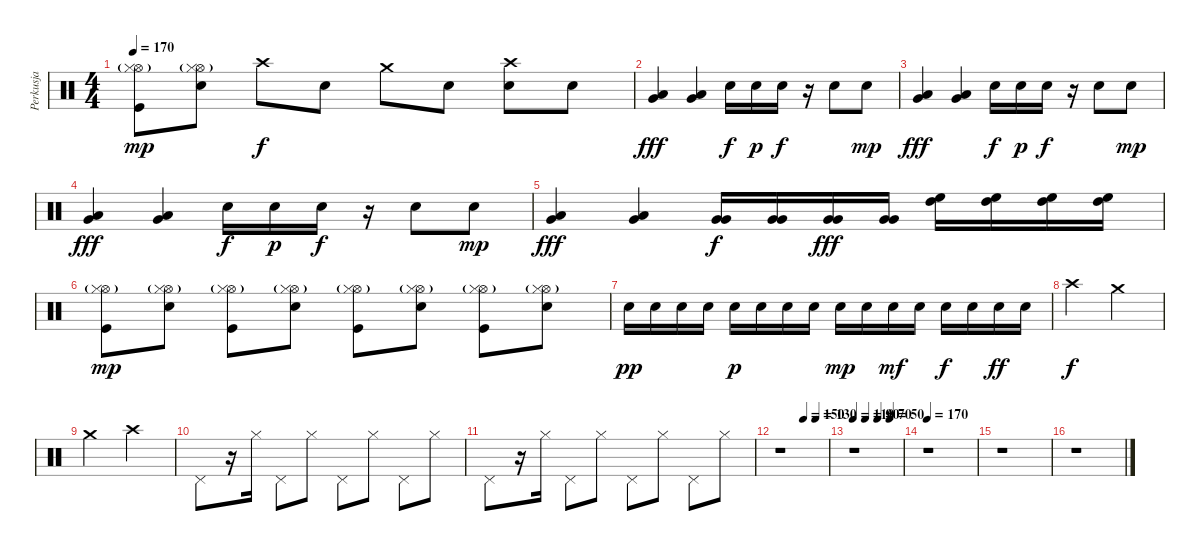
\track ("Perkusja" "Perkusja") {instrument percussion}
\staff {score}
\articulation defaults
\ts (4 4)
\tempo 170
\clef neutral
\ks c
("Hi-Hat (open)"{g} "Hi-Hat (closed)"{g} "Kick (hit)").8{dy mp} ("Hi-Hat (open)"{g} "Hi-Hat (closed)"{g} "Electric Snare (hit)").8 "Crash high (hit)".8{dy f} "Electric Snare (hit)".8 "Crash medium (hit)".8 "Electric Snare (hit)".8 ("Crash high (hit)" "Electric Snare (hit)").8 "Electric Snare (hit)".8 |
("Low Floor Tom (hit)" "Very Low Tom (hit)").4{dy fff} ("Low Floor Tom (hit)" "Very Low Tom (hit)").4 "Electric Snare (hit)".16{dy f} "Electric Snare (hit)".16{dy p} "Electric Snare (hit)".16{dy f} r.16 "Electric Snare (hit)".8 "Electric Snare (hit)".8{dy mp} |
("Low Floor Tom (hit)" "Very Low Tom (hit)").4{dy fff} ("Low Floor Tom (hit)" "Very Low Tom (hit)").4 "Electric Snare (hit)".16{dy f} "Electric Snare (hit)".16{dy p} "Electric Snare (hit)".16{dy f} r.16 "Electric Snare (hit)".8 "Electric Snare (hit)".8{dy mp} |
("Low Floor Tom (hit)" "Very Low Tom (hit)").4{dy fff} ("Low Floor Tom (hit)" "Very Low Tom (hit)").4 "Electric Snare (hit)".16{dy f} "Electric Snare (hit)".16{dy p} "Electric Snare (hit)".16{dy f} r.16 "Electric Snare (hit)".8 "Electric Snare (hit)".8{dy mp} |
("Low Floor Tom (hit)" "Very Low Tom (hit)").4{dy fff} ("Low Floor Tom (hit)" "Very Low Tom (hit)").4 ("Very Low Tom (hit)" "Very Low Tom (hit)").16{dy f} ("Very Low Tom (hit)" "Very Low Tom (hit)").16 ("Very Low Tom (hit)" "Very Low Tom (hit)").16{dy fff} ("Very Low Tom (hit)" "Very Low Tom (hit)").16 ("High Tom (hit)" "High Floor Tom (hit)").16 ("High Tom (hit)" "High Floor Tom (hit)").16 ("High Tom (hit)" "High Floor Tom (hit)").16 ("High Tom (hit)" "High Floor Tom (hit)").16 |
("Hi-Hat (open)"{g} "Hi-Hat (closed)"{g} "Kick (hit)").8{dy mp} ("Hi-Hat (open)"{g} "Hi-Hat (closed)"{g} "Electric Snare (hit)").8 ("Hi-Hat (open)"{g} "Hi-Hat (closed)"{g} "Kick (hit)").8 ("Hi-Hat (open)"{g} "Hi-Hat (closed)"{g} "Electric Snare (hit)").8 ("Hi-Hat (open)"{g} "Hi-Hat (closed)"{g} "Kick (hit)").8 ("Hi-Hat (open)"{g} "Hi-Hat (closed)"{g} "Electric Snare (hit)").8 ("Hi-Hat (open)"{g} "Hi-Hat (closed)"{g} "Kick (hit)").8 ("Hi-Hat (open)"{g} "Hi-Hat (closed)"{g} "Electric Snare (hit)").8 |
"Electric Snare (hit)".16{dy pp} "Electric Snare (hit)".16 "Electric Snare (hit)".16 "Electric Snare (hit)".16 "Electric Snare (hit)".16{dy p} "Electric Snare (hit)".16 "Electric Snare (hit)".16 "Electric Snare (hit)".16 "Electric Snare (hit)".16{dy mp} "Electric Snare (hit)".16 "Electric Snare (hit)".16{dy mf} "Electric Snare (hit)".16 "Electric Snare (hit)".16{dy f} "Electric Snare (hit)".16 "Electric Snare (hit)".16{dy ff} "Electric Snare (hit)".16 |
"Crash high (hit)".2{dy f} "Crash medium (hit)".2 |
"Crash medium (hit)".2 "Crash high (hit)".2 |
"Pedal Hi-Hat (hit)".8 r.16 "Hi-Hat (closed)".16 "Pedal Hi-Hat (hit)".8 "Hi-Hat (closed)".8 "Pedal Hi-Hat (hit)".8 "Hi-Hat (closed)".8 "Pedal Hi-Hat (hit)".8 "Hi-Hat (closed)".8 |
"Pedal Hi-Hat (hit)".8 r.16 "Hi-Hat (closed)".16 "Pedal Hi-Hat (hit)".8 "Hi-Hat (closed)".8 "Pedal Hi-Hat (hit)".8 "Hi-Hat (closed)".8 "Pedal Hi-Hat (hit)".8 "Hi-Hat (closed)".8 |
\tempo (150 0.5)
\tempo (130 0.75)
r.1 |
\tempo 110
\tempo (90 0.25)
\tempo (70 0.5)
\tempo (50 0.75)
r.1 |
\tempo 170
r.1 |
r.1 |
r.1
